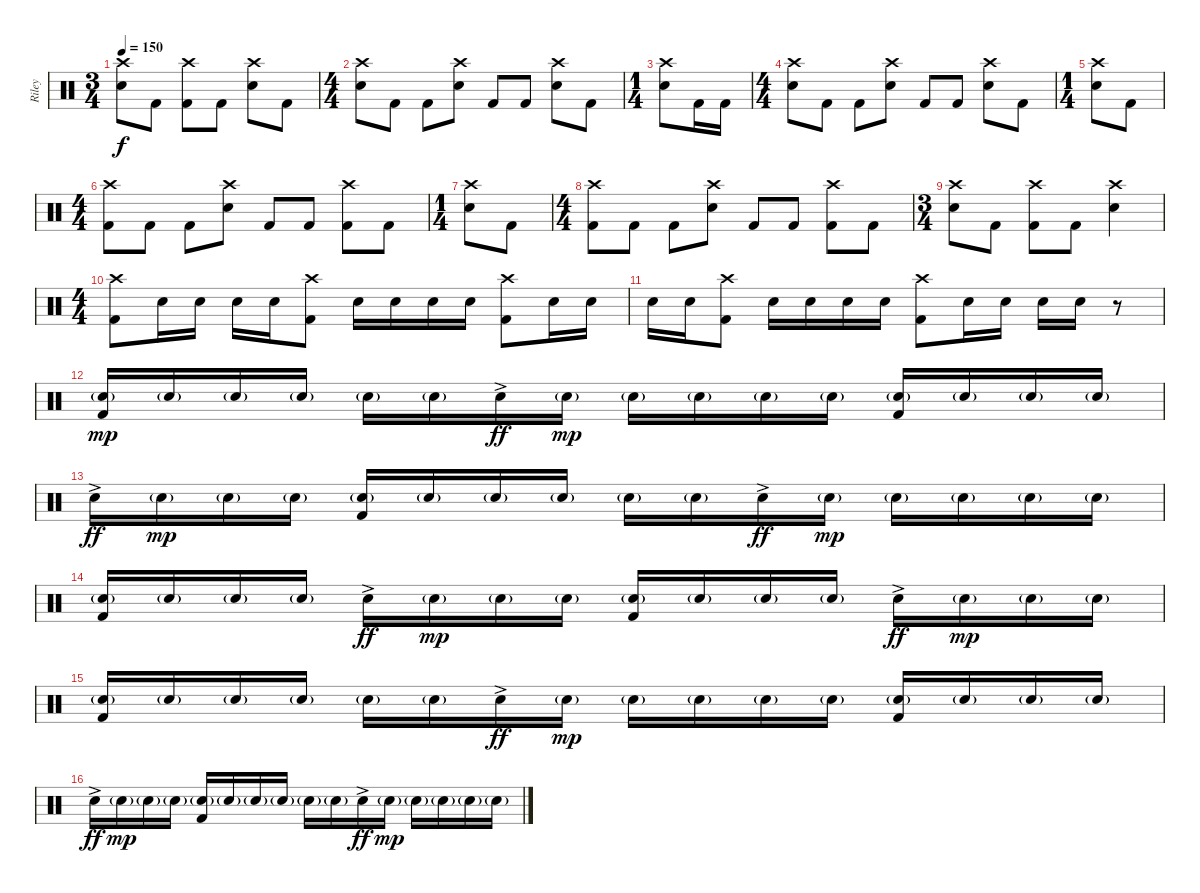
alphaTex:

\track ("Riley" "Riley") {instrument percussion}
\staff {score}
\articulation defaults
\ts (3 4)
\tempo 150
\clef neutral
\ks c
("Crash high (hit)" "Electric Snare (hit)").8{dy f} "Kick (hit) 2".8 ("Crash high (hit)" "Kick (hit) 2").8 "Kick (hit) 2".8 ("Crash high (hit)" "Electric Snare (hit)").8 "Kick (hit) 2".8 |
\ts (4 4)
("Crash high (hit)" "Electric Snare (hit)").8 "Kick (hit) 2".8 "Kick (hit) 2".8 ("Crash high (hit)" "Electric Snare (hit)").8 "Kick (hit) 2".8 "Kick (hit) 2".8 ("Crash high (hit)" "Electric Snare (hit)").8 "Kick (hit) 2".8 |
\ts (1 4)
("Crash high (hit)" "Electric Snare (hit)").8 "Kick (hit) 2".16 "Kick (hit) 2".16 |
\ts (4 4)
("Crash high (hit)" "Electric Snare (hit)").8 "Kick (hit) 2".8 "Kick (hit) 2".8 ("Crash high (hit)" "Electric Snare (hit)").8 "Kick (hit) 2".8 "Kick (hit) 2".8 ("Crash high (hit)" "Electric Snare (hit)").8 "Kick (hit) 2".8 |
\ts (1 4)
("Crash high (hit)" "Electric Snare (hit)").8 "Kick (hit) 2".8 |
\ts (4 4)
("Crash high (hit)" "Kick (hit) 2").8 "Kick (hit) 2".8 "Kick (hit) 2".8 ("Crash high (hit)" "Electric Snare (hit)").8 "Kick (hit) 2".8 "Kick (hit) 2".8 ("Crash high (hit)" "Kick (hit) 2").8 "Kick (hit) 2".8 |
\ts (1 4)
("Crash high (hit)" "Electric Snare (hit)").8 "Kick (hit) 2".8 |
\ts (4 4)
("Crash high (hit)" "Kick (hit) 2").8 "Kick (hit) 2".8 "Kick (hit) 2".8 ("Crash high (hit)" "Electric Snare (hit)").8 "Kick (hit) 2".8 "Kick (hit) 2".8 ("Crash high (hit)" "Kick (hit) 2").8 "Kick (hit) 2".8 |
\ts (3 4)
("Crash high (hit)" "Electric Snare (hit)").8 "Kick (hit) 2".8 ("Crash high (hit)" "Kick (hit) 2").8 "Kick (hit) 2".8 ("Crash high (hit)" "Electric Snare (hit)").4 |
\ts (4 4)
("Crash high (hit)" "Kick (hit) 2").8 "Electric Snare (hit)".16 "Electric Snare (hit)".16 "Electric Snare (hit)".16 "Electric Snare (hit)".16 ("Crash high (hit)" "Kick (hit) 2").8 "Electric Snare (hit)".16 "Electric Snare (hit)".16 "Electric Snare (hit)".16 "Electric Snare (hit)".16 ("Crash high (hit)" "Kick (hit) 2").8 "Electric Snare (hit)".16 "Electric Snare (hit)".16 |
"Electric Snare (hit)".16 "Electric Snare (hit)".16 ("Crash high (hit)" "Kick (hit) 2").8 "Electric Snare (hit)".16 "Electric Snare (hit)".16 "Electric Snare (hit)".16 "Electric Snare (hit)".16 ("Crash high (hit)" "Kick (hit) 2").8 "Electric Snare (hit)".16 "Electric Snare (hit)".16 "Electric Snare (hit)".16 "Electric Snare (hit)".16 r.8 |
("Electric Snare (hit)"{g} "Kick (hit) 2").16{dy mp} "Electric Snare (hit)"{g}.16 "Electric Snare (hit)"{g}.16 "Electric Snare (hit)"{g}.16 "Electric Snare (hit)"{g}.16 "Electric Snare (hit)"{g}.16 "Electric Snare (hit)"{ac}.16{dy ff} "Electric Snare (hit)"{g}.16{dy mp} "Electric Snare (hit)"{g}.16 "Electric Snare (hit)"{g}.16 "Electric Snare (hit)"{g}.16 "Electric Snare (hit)"{g}.16 ("Electric Snare (hit)"{g} "Kick (hit) 2").16 "Electric Snare (hit)"{g}.16 "Electric Snare (hit)"{g}.16 "Electric Snare (hit)"{g}.16 |
"Electric Snare (hit)"{ac}.16{dy ff} "Electric Snare (hit)"{g}.16{dy mp} "Electric Snare (hit)"{g}.16 "Electric Snare (hit)"{g}.16 ("Electric Snare (hit)"{g} "Kick (hit) 2").16 "Electric Snare (hit)"{g}.16 "Electric Snare (hit)"{g}.16 "Electric Snare (hit)"{g}.16 "Electric Snare (hit)"{g}.16 "Electric Snare (hit)"{g}.16 "Electric Snare (hit)"{ac}.16{dy ff} "Electric Snare (hit)"{g}.16{dy mp} "Electric Snare (hit)"{g}.16 "Electric Snare (hit)"{g}.16 "Electric Snare (hit)"{g}.16 "Electric Snare (hit)"{g}.16 |
("Electric Snare (hit)"{g} "Kick (hit) 2").16 "Electric Snare (hit)"{g}.16 "Electric Snare (hit)"{g}.16 "Electric Snare (hit)"{g}.16 "Electric Snare (hit)"{ac}.16{dy ff} "Electric Snare (hit)"{g}.16{dy mp} "Electric Snare (hit)"{g}.16 "Electric Snare (hit)"{g}.16 ("Electric Snare (hit)"{g} "Kick (hit) 2").16 "Electric Snare (hit)"{g}.16 "Electric Snare (hit)"{g}.16 "Electric Snare (hit)"{g}.16 "Electric Snare (hit)"{ac}.16{dy ff} "Electric Snare (hit)"{g}.16{dy mp} "Electric Snare (hit)"{g}.16 "Electric Snare (hit)"{g}.16 |
("Electric Snare (hit)"{g} "Kick (hit) 2").16 "Electric Snare (hit)"{g}.16 "Electric Snare (hit)"{g}.16 "Electric Snare (hit)"{g}.16 "Electric Snare (hit)"{g}.16 "Electric Snare (hit)"{g}.16 "Electric Snare (hit)"{ac}.16{dy ff} "Electric Snare (hit)"{g}.16{dy mp} "Electric Snare (hit)"{g}.16 "Electric Snare (hit)"{g}.16 "Electric Snare (hit)"{g}.16 "Electric Snare (hit)"{g}.16 ("Electric Snare (hit)"{g} "Kick (hit) 2").16 "Electric Snare (hit)"{g}.16 "Electric Snare (hit)"{g}.16 "Electric Snare (hit)"{g}.16 |
"Electric Snare (hit)"{ac}.16{dy ff} "Electric Snare (hit)"{g}.16{dy mp} "Electric Snare (hit)"{g}.16 "Electric Snare (hit)"{g}.16 ("Electric Snare (hit)"{g} "Kick (hit) 2").16 "Electric Snare (hit)"{g}.16 "Electric Snare (hit)"{g}.16 "Electric Snare (hit)"{g}.16 "Electric Snare (hit)"{g}.16 "Electric Snare (hit)"{g}.16 "Electric Snare (hit)"{ac}.16{dy ff} "Electric Snare (hit)"{g}.16{dy mp} "Electric Snare (hit)"{g}.16 "Electric Snare (hit)"{g}.16 "Electric Snare (hit)"{g}.16 "Electric Snare (hit)"{g}.16
